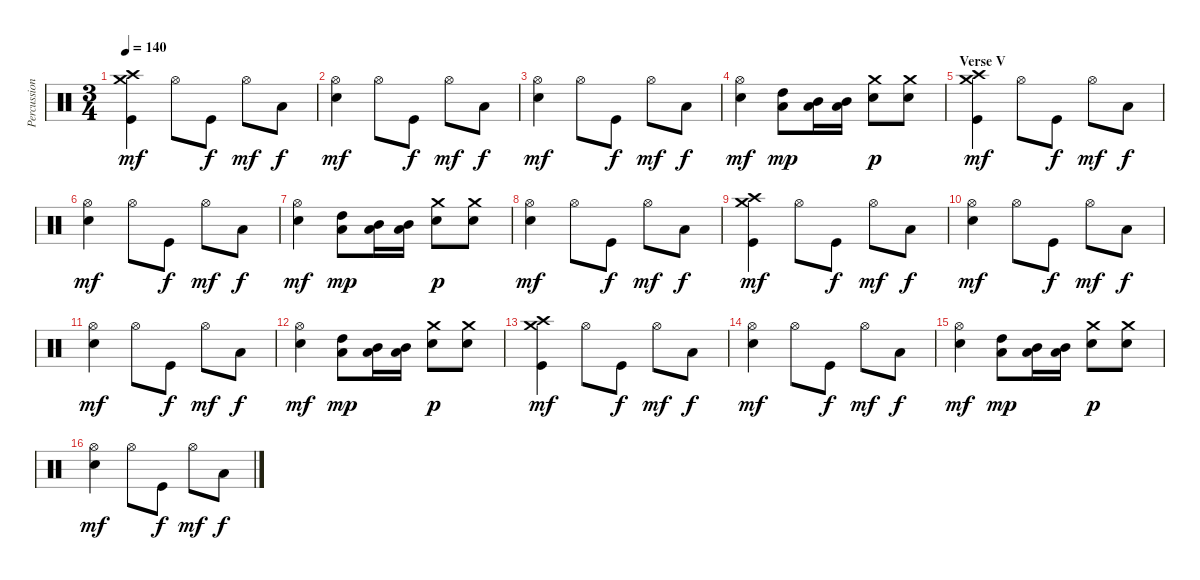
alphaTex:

\track ("Percussion" "Percussion") {instrument percussion}
\staff {score}
\articulation defaults
\ts (3 4)
\tempo 140
\clef neutral
\ks c
("Kick (hit)" "Crash high (hit)" "Crash medium (hit)").4{dy mf} "Hi-Hat (open)".8 "Kick (hit)".8{dy f} "Hi-Hat (open)".8{dy mf} "Low Floor Tom (hit)".8{dy f} |
("Electric Snare (hit)" "Hi-Hat (open)").4{dy mf} "Hi-Hat (open)".8 "Kick (hit)".8{dy f} "Hi-Hat (open)".8{dy mf} "Low Floor Tom (hit)".8{dy f} |
("Electric Snare (hit)" "Hi-Hat (open)").4{dy mf} "Hi-Hat (open)".8 "Kick (hit)".8{dy f} "Hi-Hat (open)".8{dy mf} "Low Floor Tom (hit)".8{dy f} |
("Electric Snare (hit)" "Hi-Hat (open)").4{dy mf} ("Low Tom (hit)" "High Tom (hit)").8{dy mp} ("Low Tom (hit)" "Mid Tom (hit)").16 ("Low Tom (hit)" "Mid Tom (hit)").16 ("Electric Snare (hit)" "Crash medium (hit)").8{dy p} ("Electric Snare (hit)" "Crash medium (hit)").8 |
\section ("" "Verse V")
("Kick (hit)" "Crash high (hit)" "Crash medium (hit)").4{dy mf} "Hi-Hat (open)".8 "Kick (hit)".8{dy f} "Hi-Hat (open)".8{dy mf} "Low Floor Tom (hit)".8{dy f} |
("Electric Snare (hit)" "Hi-Hat (open)").4{dy mf} "Hi-Hat (open)".8 "Kick (hit)".8{dy f} "Hi-Hat (open)".8{dy mf} "Low Floor Tom (hit)".8{dy f} |
("Electric Snare (hit)" "Hi-Hat (open)").4{dy mf} ("Low Tom (hit)" "High Tom (hit)").8{dy mp} ("Low Tom (hit)" "Mid Tom (hit)").16 ("Low Tom (hit)" "Mid Tom (hit)").16 ("Electric Snare (hit)" "Crash medium (hit)").8{dy p} ("Electric Snare (hit)" "Crash medium (hit)").8 |
("Electric Snare (hit)" "Hi-Hat (open)").4{dy mf} "Hi-Hat (open)".8 "Kick (hit)".8{dy f} "Hi-Hat (open)".8{dy mf} "Low Floor Tom (hit)".8{dy f} |
("Kick (hit)" "Crash high (hit)" "Crash medium (hit)").4{dy mf} "Hi-Hat (open)".8 "Kick (hit)".8{dy f} "Hi-Hat (open)".8{dy mf} "Low Floor Tom (hit)".8{dy f} |
("Electric Snare (hit)" "Hi-Hat (open)").4{dy mf} "Hi-Hat (open)".8 "Kick (hit)".8{dy f} "Hi-Hat (open)".8{dy mf} "Low Floor Tom (hit)".8{dy f} |
("Electric Snare (hit)" "Hi-Hat (open)").4{dy mf} "Hi-Hat (open)".8 "Kick (hit)".8{dy f} "Hi-Hat (open)".8{dy mf} "Low Floor Tom (hit)".8{dy f} |
("Electric Snare (hit)" "Hi-Hat (open)").4{dy mf} ("Low Tom (hit)" "High Tom (hit)").8{dy mp} ("Low Tom (hit)" "Mid Tom (hit)").16 ("Low Tom (hit)" "Mid Tom (hit)").16 ("Electric Snare (hit)" "Crash medium (hit)").8{dy p} ("Electric Snare (hit)" "Crash medium (hit)").8 |
("Kick (hit)" "Crash high (hit)" "Crash medium (hit)").4{dy mf} "Hi-Hat (open)".8 "Kick (hit)".8{dy f} "Hi-Hat (open)".8{dy mf} "Low Floor Tom (hit)".8{dy f} |
("Electric Snare (hit)" "Hi-Hat (open)").4{dy mf} "Hi-Hat (open)".8 "Kick (hit)".8{dy f} "Hi-Hat (open)".8{dy mf} "Low Floor Tom (hit)".8{dy f} |
("Electric Snare (hit)" "Hi-Hat (open)").4{dy mf} ("Low Tom (hit)" "High Tom (hit)").8{dy mp} ("Low Tom (hit)" "Mid Tom (hit)").16 ("Low Tom (hit)" "Mid Tom (hit)").16 ("Electric Snare (hit)" "Crash medium (hit)").8{dy p} ("Electric Snare (hit)" "Crash medium (hit)").8 |
("Electric Snare (hit)" "Hi-Hat (open)").4{dy mf} "Hi-Hat (open)".8 "Kick (hit)".8{dy f} "Hi-Hat (open)".8{dy mf} "Low Floor Tom (hit)".8{dy f}
